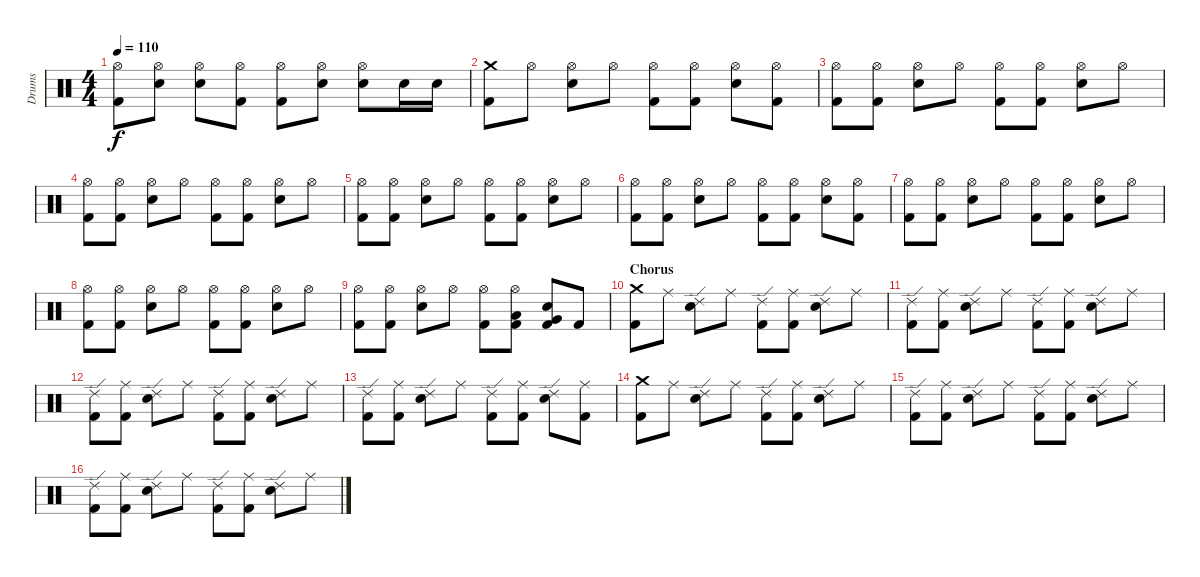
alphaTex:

\track ("Drums" "Drums") {instrument percussion}
\staff {score}
\articulation defaults
\ts (4 4)
\tempo 110
\clef neutral
\ks c
("Hi-Hat (open)" "Kick (hit) 2").8{dy f} ("Hi-Hat (open)" "Electric Snare (hit)").8 ("Hi-Hat (open)" "Electric Snare (hit)").8 ("Hi-Hat (open)" "Kick (hit) 2").8 ("Hi-Hat (open)" "Kick (hit) 2").8 ("Hi-Hat (open)" "Electric Snare (hit)").8 ("Hi-Hat (open)" "Electric Snare (hit)").8 "Electric Snare (hit)".16 "Electric Snare (hit)".16 |
("Crash medium (hit)" "Kick (hit) 2").8 "Hi-Hat (open)".8 ("Hi-Hat (open)" "Electric Snare (hit)").8 "Hi-Hat (open)".8 ("Hi-Hat (open)" "Kick (hit) 2").8 ("Hi-Hat (open)" "Kick (hit) 2").8 ("Hi-Hat (open)" "Electric Snare (hit)").8 ("Hi-Hat (open)" "Kick (hit) 2").8 |
("Hi-Hat (open)" "Kick (hit) 2").8 ("Hi-Hat (open)" "Kick (hit) 2").8 ("Hi-Hat (open)" "Electric Snare (hit)").8 "Hi-Hat (open)".8 ("Hi-Hat (open)" "Kick (hit) 2").8 ("Hi-Hat (open)" "Kick (hit) 2").8 ("Hi-Hat (open)" "Electric Snare (hit)").8 "Hi-Hat (open)".8 |
("Hi-Hat (open)" "Kick (hit) 2").8 ("Hi-Hat (open)" "Kick (hit) 2").8 ("Hi-Hat (open)" "Electric Snare (hit)").8 "Hi-Hat (open)".8 ("Hi-Hat (open)" "Kick (hit) 2").8 ("Hi-Hat (open)" "Kick (hit) 2").8 ("Hi-Hat (open)" "Electric Snare (hit)").8 "Hi-Hat (open)".8 |
("Hi-Hat (open)" "Kick (hit) 2").8 ("Hi-Hat (open)" "Kick (hit) 2").8 ("Hi-Hat (open)" "Electric Snare (hit)").8 "Hi-Hat (open)".8 ("Hi-Hat (open)" "Kick (hit) 2").8 ("Hi-Hat (open)" "Kick (hit) 2").8 ("Hi-Hat (open)" "Electric Snare (hit)").8 "Hi-Hat (open)".8 |
("Hi-Hat (open)" "Kick (hit) 2").8 ("Hi-Hat (open)" "Kick (hit) 2").8 ("Hi-Hat (open)" "Electric Snare (hit)").8 "Hi-Hat (open)".8 ("Hi-Hat (open)" "Kick (hit) 2").8 ("Hi-Hat (open)" "Kick (hit) 2").8 ("Hi-Hat (open)" "Electric Snare (hit)").8 ("Hi-Hat (open)" "Kick (hit) 2").8 |
("Hi-Hat (open)" "Kick (hit) 2").8 ("Hi-Hat (open)" "Kick (hit) 2").8 ("Hi-Hat (open)" "Electric Snare (hit)").8 "Hi-Hat (open)".8 ("Hi-Hat (open)" "Kick (hit) 2").8 ("Hi-Hat (open)" "Kick (hit) 2").8 ("Hi-Hat (open)" "Electric Snare (hit)").8 "Hi-Hat (open)".8 |
("Hi-Hat (open)" "Kick (hit) 2").8 ("Hi-Hat (open)" "Kick (hit) 2").8 ("Hi-Hat (open)" "Electric Snare (hit)").8 "Hi-Hat (open)".8 ("Hi-Hat (open)" "Kick (hit) 2").8 ("Hi-Hat (open)" "Kick (hit) 2").8 ("Hi-Hat (open)" "Electric Snare (hit)").8 "Hi-Hat (open)".8 |
("Hi-Hat (open)" "Kick (hit) 2").8 ("Hi-Hat (open)" "Kick (hit) 2").8 ("Hi-Hat (open)" "Electric Snare (hit)").8 "Hi-Hat (open)".8 ("Hi-Hat (open)" "Kick (hit) 2").8 ("Hi-Hat (open)" "Low Floor Tom (hit)" "Kick (hit) 2").8 ("Electric Snare (hit)" "Very Low Tom (hit)" "Kick (hit) 2").8 "Kick (hit) 2".8 |
\section ("" "Chorus")
("Crash medium (hit)" "Kick (hit) 2").8 "Ride (middle)".8 ("Ride (edge) 2" "Electric Snare (hit)").8 "Ride (middle)".8 ("Ride (edge) 2" "Kick (hit) 2").8 ("Ride (middle)" "Kick (hit) 2").8 ("Ride (edge) 2" "Electric Snare (hit)").8 "Ride (middle)".8 |
("Ride (edge) 2" "Kick (hit) 2").8 ("Ride (middle)" "Kick (hit) 2").8 ("Ride (edge) 2" "Electric Snare (hit)").8 "Ride (middle)".8 ("Ride (edge) 2" "Kick (hit) 2").8 ("Ride (middle)" "Kick (hit) 2").8 ("Ride (edge) 2" "Electric Snare (hit)").8 "Ride (middle)".8 |
("Ride (edge) 2" "Kick (hit) 2").8 ("Ride (middle)" "Kick (hit) 2").8 ("Ride (edge) 2" "Electric Snare (hit)").8 "Ride (middle)".8 ("Ride (edge) 2" "Kick (hit) 2").8 ("Ride (middle)" "Kick (hit) 2").8 ("Ride (edge) 2" "Electric Snare (hit)").8 "Ride (middle)".8 |
("Ride (edge) 2" "Kick (hit) 2").8 ("Ride (middle)" "Kick (hit) 2").8 ("Ride (edge) 2" "Electric Snare (hit)").8 "Ride (middle)".8 ("Ride (edge) 2" "Kick (hit) 2").8 ("Ride (middle)" "Kick (hit) 2").8 ("Ride (edge) 2" "Electric Snare (hit)").8 ("Ride (middle)" "Kick (hit) 2").8 |
("Crash medium (hit)" "Kick (hit) 2").8 "Ride (middle)".8 ("Ride (edge) 2" "Electric Snare (hit)").8 "Ride (middle)".8 ("Ride (edge) 2" "Kick (hit) 2").8 ("Ride (middle)" "Kick (hit) 2").8 ("Ride (edge) 2" "Electric Snare (hit)").8 "Ride (middle)".8 |
("Ride (edge) 2" "Kick (hit) 2").8 ("Ride (middle)" "Kick (hit) 2").8 ("Ride (edge) 2" "Electric Snare (hit)").8 "Ride (middle)".8 ("Ride (edge) 2" "Kick (hit) 2").8 ("Ride (middle)" "Kick (hit) 2").8 ("Ride (edge) 2" "Electric Snare (hit)").8 "Ride (middle)".8 |
("Ride (edge) 2" "Kick (hit) 2").8 ("Ride (middle)" "Kick (hit) 2").8 ("Ride (edge) 2" "Electric Snare (hit)").8 "Ride (middle)".8 ("Ride (edge) 2" "Kick (hit) 2").8 ("Ride (middle)" "Kick (hit) 2").8 ("Ride (edge) 2" "Electric Snare (hit)").8 "Ride (middle)".8
